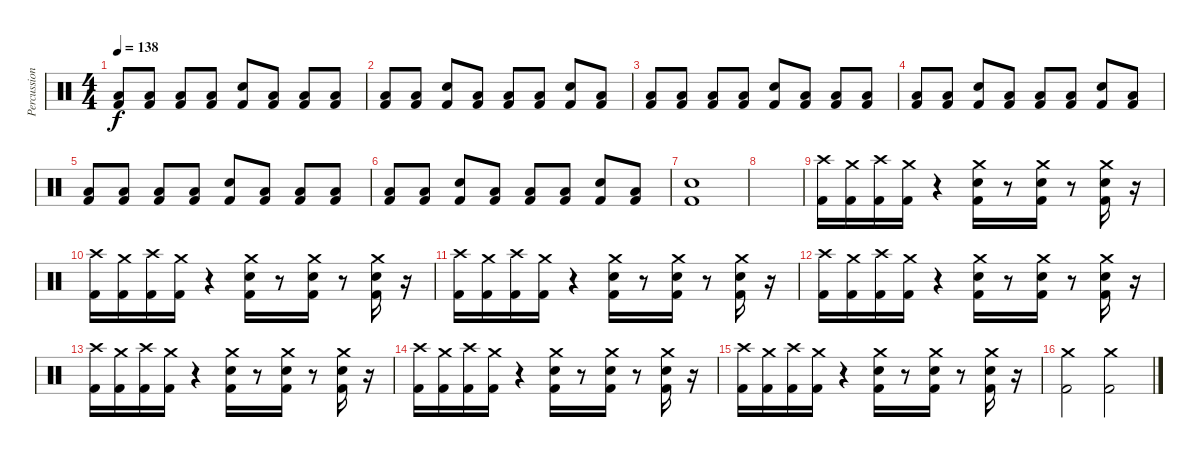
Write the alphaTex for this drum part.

\track ("Percussion" "Percussion") {instrument percussion}
\staff {score}
\articulation defaults
\ts (4 4)
\tempo 138
\clef neutral
\ks c
("Low Tom (hit)" "Kick (hit) 2").8{dy f} ("Low Tom (hit)" "Kick (hit) 2").8 ("Low Tom (hit)" "Kick (hit) 2").8 ("Low Tom (hit)" "Kick (hit) 2").8 ("Electric Snare (hit)" "Kick (hit) 2").8 ("Low Tom (hit)" "Kick (hit) 2").8 ("Low Tom (hit)" "Kick (hit) 2").8 ("Low Tom (hit)" "Kick (hit) 2").8 |
("Low Tom (hit)" "Kick (hit) 2").8 ("Low Tom (hit)" "Kick (hit) 2").8 ("Electric Snare (hit)" "Kick (hit) 2").8 ("Low Tom (hit)" "Kick (hit) 2").8 ("Low Tom (hit)" "Kick (hit) 2").8 ("Low Tom (hit)" "Kick (hit) 2").8 ("Electric Snare (hit)" "Kick (hit) 2").8 ("Low Tom (hit)" "Kick (hit) 2").8 |
("Low Tom (hit)" "Kick (hit) 2").8 ("Low Tom (hit)" "Kick (hit) 2").8 ("Low Tom (hit)" "Kick (hit) 2").8 ("Low Tom (hit)" "Kick (hit) 2").8 ("Electric Snare (hit)" "Kick (hit) 2").8 ("Low Tom (hit)" "Kick (hit) 2").8 ("Low Tom (hit)" "Kick (hit) 2").8 ("Low Tom (hit)" "Kick (hit) 2").8 |
("Low Tom (hit)" "Kick (hit) 2").8 ("Low Tom (hit)" "Kick (hit) 2").8 ("Electric Snare (hit)" "Kick (hit) 2").8 ("Low Tom (hit)" "Kick (hit) 2").8 ("Low Tom (hit)" "Kick (hit) 2").8 ("Low Tom (hit)" "Kick (hit) 2").8 ("Electric Snare (hit)" "Kick (hit) 2").8 ("Low Tom (hit)" "Kick (hit) 2").8 |
("Low Tom (hit)" "Kick (hit) 2").8 ("Low Tom (hit)" "Kick (hit) 2").8 ("Low Tom (hit)" "Kick (hit) 2").8 ("Low Tom (hit)" "Kick (hit) 2").8 ("Electric Snare (hit)" "Kick (hit) 2").8 ("Low Tom (hit)" "Kick (hit) 2").8 ("Low Tom (hit)" "Kick (hit) 2").8 ("Low Tom (hit)" "Kick (hit) 2").8 |
("Low Tom (hit)" "Kick (hit) 2").8 ("Low Tom (hit)" "Kick (hit) 2").8 ("Electric Snare (hit)" "Kick (hit) 2").8 ("Low Tom (hit)" "Kick (hit) 2").8 ("Low Tom (hit)" "Kick (hit) 2").8 ("Low Tom (hit)" "Kick (hit) 2").8 ("Electric Snare (hit)" "Kick (hit) 2").8 ("Low Tom (hit)" "Kick (hit) 2").8 |
("Electric Snare (hit)" "Kick (hit) 2").1 |
|
("Crash high (hit)" "Kick (hit) 2").16 ("Crash medium (hit)" "Kick (hit) 2").16 ("Crash high (hit)" "Kick (hit) 2").16 ("Crash medium (hit)" "Kick (hit) 2").16 r.4 ("Crash medium (hit)" "Electric Snare (hit)" "Kick (hit) 2").16 r.8 ("Crash medium (hit)" "Electric Snare (hit)" "Kick (hit) 2").16 r.8 ("Crash medium (hit)" "Electric Snare (hit)" "Kick (hit) 2").16 r.16 |
("Crash high (hit)" "Kick (hit) 2").16 ("Crash medium (hit)" "Kick (hit) 2").16 ("Crash high (hit)" "Kick (hit) 2").16 ("Crash medium (hit)" "Kick (hit) 2").16 r.4 ("Crash medium (hit)" "Electric Snare (hit)" "Kick (hit) 2").16 r.8 ("Crash medium (hit)" "Electric Snare (hit)" "Kick (hit) 2").16 r.8 ("Crash medium (hit)" "Electric Snare (hit)" "Kick (hit) 2").16 r.16 |
("Crash high (hit)" "Kick (hit) 2").16 ("Crash medium (hit)" "Kick (hit) 2").16 ("Crash high (hit)" "Kick (hit) 2").16 ("Crash medium (hit)" "Kick (hit) 2").16 r.4 ("Crash medium (hit)" "Electric Snare (hit)" "Kick (hit) 2").16 r.8 ("Crash medium (hit)" "Electric Snare (hit)" "Kick (hit) 2").16 r.8 ("Crash medium (hit)" "Electric Snare (hit)" "Kick (hit) 2").16 r.16 |
("Crash high (hit)" "Kick (hit) 2").16 ("Crash medium (hit)" "Kick (hit) 2").16 ("Crash high (hit)" "Kick (hit) 2").16 ("Crash medium (hit)" "Kick (hit) 2").16 r.4 ("Crash medium (hit)" "Electric Snare (hit)" "Kick (hit) 2").16 r.8 ("Crash medium (hit)" "Electric Snare (hit)" "Kick (hit) 2").16 r.8 ("Crash medium (hit)" "Electric Snare (hit)" "Kick (hit) 2").16 r.16 |
("Crash high (hit)" "Kick (hit) 2").16 ("Crash medium (hit)" "Kick (hit) 2").16 ("Crash high (hit)" "Kick (hit) 2").16 ("Crash medium (hit)" "Kick (hit) 2").16 r.4 ("Crash medium (hit)" "Electric Snare (hit)" "Kick (hit) 2").16 r.8 ("Crash medium (hit)" "Electric Snare (hit)" "Kick (hit) 2").16 r.8 ("Crash medium (hit)" "Electric Snare (hit)" "Kick (hit) 2").16 r.16 |
("Crash high (hit)" "Kick (hit) 2").16 ("Crash medium (hit)" "Kick (hit) 2").16 ("Crash high (hit)" "Kick (hit) 2").16 ("Crash medium (hit)" "Kick (hit) 2").16 r.4 ("Crash medium (hit)" "Electric Snare (hit)" "Kick (hit) 2").16 r.8 ("Crash medium (hit)" "Electric Snare (hit)" "Kick (hit) 2").16 r.8 ("Crash medium (hit)" "Electric Snare (hit)" "Kick (hit) 2").16 r.16 |
("Crash high (hit)" "Kick (hit) 2").16 ("Crash medium (hit)" "Kick (hit) 2").16 ("Crash high (hit)" "Kick (hit) 2").16 ("Crash medium (hit)" "Kick (hit) 2").16 r.4 ("Crash medium (hit)" "Electric Snare (hit)" "Kick (hit) 2").16 r.8 ("Crash medium (hit)" "Electric Snare (hit)" "Kick (hit) 2").16 r.8 ("Crash medium (hit)" "Electric Snare (hit)" "Kick (hit) 2").16 r.16 |
("Crash medium (hit)" "Kick (hit) 2").2 ("Crash medium (hit)" "Kick (hit) 2").2
